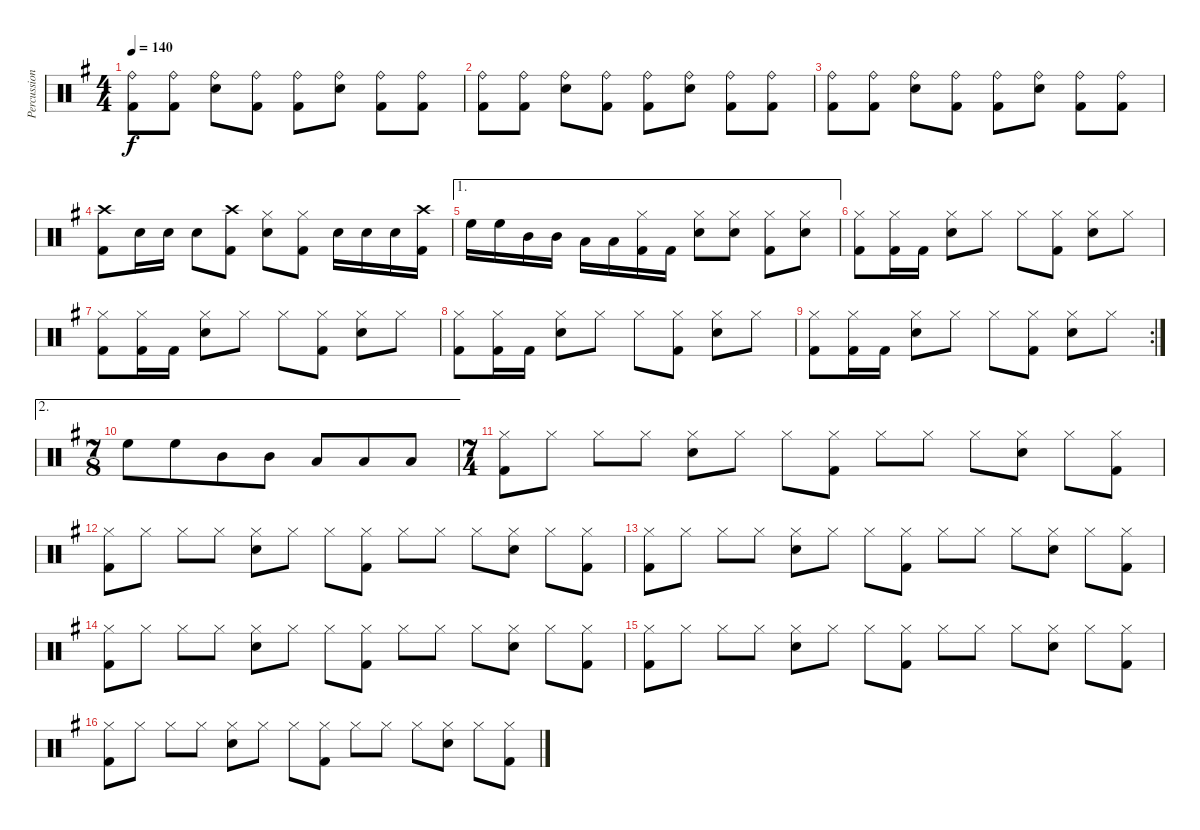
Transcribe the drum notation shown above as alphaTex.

\track ("Percussions" "Percussion") {instrument percussion}
\staff {score}
\articulation defaults
\ts (4 4)
\tempo 140
\clef neutral
\ks g
("Ride (bell)" "Kick (hit) 2").8{dy f} ("Ride (bell)" "Kick (hit) 2").8 ("Ride (bell)" "Snare (hit) 2").8 ("Ride (bell)" "Kick (hit) 2").8 ("Ride (bell)" "Kick (hit) 2").8 ("Ride (bell)" "Snare (hit) 2").8 ("Ride (bell)" "Kick (hit) 2").8 ("Ride (bell)" "Kick (hit) 2").8 |
("Ride (bell)" "Kick (hit) 2").8 ("Ride (bell)" "Kick (hit) 2").8 ("Ride (bell)" "Snare (hit) 2").8 ("Ride (bell)" "Kick (hit) 2").8 ("Ride (bell)" "Kick (hit) 2").8 ("Ride (bell)" "Snare (hit) 2").8 ("Ride (bell)" "Kick (hit) 2").8 ("Ride (bell)" "Kick (hit) 2").8 |
("Ride (bell)" "Kick (hit) 2").8 ("Ride (bell)" "Kick (hit) 2").8 ("Ride (bell)" "Snare (hit) 2").8 ("Ride (bell)" "Kick (hit) 2").8 ("Ride (bell)" "Kick (hit) 2").8 ("Ride (bell)" "Snare (hit) 2").8 ("Ride (bell)" "Kick (hit) 2").8 ("Ride (bell)" "Kick (hit) 2").8 |
("Crash high (hit)" "Kick (hit) 2").8 "Snare (hit) 2".16 "Snare (hit) 2".16 "Snare (hit) 2".8 ("Crash high (hit)" "Kick (hit) 2").8 ("Hi-Hat (closed)" "Snare (hit) 2").8 ("Hi-Hat (closed)" "Kick (hit) 2").8 "Snare (hit) 2".16 "Snare (hit) 2".16 "Snare (hit) 2".16 ("Crash high (hit)" "Kick (hit) 2").16 |
\ae 1 "High Floor Tom (hit)".16 "High Floor Tom (hit)".16 "Mid Tom (hit)".16 "Mid Tom (hit)".16 "Low Tom (hit)".16 "Low Floor Tom (hit)".16
("Hi-Hat (closed)" "Kick (hit) 2").16 "Kick (hit) 2".16 ("Hi-Hat (closed)" "Snare (hit) 2").8 ("Hi-Hat (closed)" "Snare (hit) 2").8 ("Hi-Hat (closed)" "Kick (hit) 2").8 ("Hi-Hat (closed)" "Snare (hit) 2").8 |
("Hi-Hat (closed)" "Kick (hit) 2").8 ("Hi-Hat (closed)" "Kick (hit) 2").16 "Kick (hit) 2".16 ("Hi-Hat (closed)" "Snare (hit) 2").8 "Hi-Hat (closed)".8 "Hi-Hat (closed)".8 ("Hi-Hat (closed)" "Kick (hit) 2").8 ("Hi-Hat (closed)" "Snare (hit) 2").8 "Hi-Hat (closed)".8 |
("Hi-Hat (closed)" "Kick (hit) 2").8 ("Hi-Hat (closed)" "Kick (hit) 2").16 "Kick (hit) 2".16 ("Hi-Hat (closed)" "Snare (hit) 2").8 "Hi-Hat (closed)".8 "Hi-Hat (closed)".8 ("Hi-Hat (closed)" "Kick (hit) 2").8 ("Hi-Hat (closed)" "Snare (hit) 2").8 "Hi-Hat (closed)".8 |
("Hi-Hat (closed)" "Kick (hit) 2").8 ("Hi-Hat (closed)" "Kick (hit) 2").16 "Kick (hit) 2".16 ("Hi-Hat (closed)" "Snare (hit) 2").8 "Hi-Hat (closed)".8 "Hi-Hat (closed)".8 ("Hi-Hat (closed)" "Kick (hit) 2").8 ("Hi-Hat (closed)" "Snare (hit) 2").8 "Hi-Hat (closed)".8 |
\rc 2
("Hi-Hat (closed)" "Kick (hit) 2").8 ("Hi-Hat (closed)" "Kick (hit) 2").16 "Kick (hit) 2".16 ("Hi-Hat (closed)" "Snare (hit) 2").8 "Hi-Hat (closed)".8 "Hi-Hat (closed)".8 ("Hi-Hat (closed)" "Kick (hit) 2").8 ("Hi-Hat (closed)" "Snare (hit) 2").8 "Hi-Hat (closed)".8 |
\ae 2
\ts (7 8)
"High Floor Tom (hit)".8 "High Floor Tom (hit)".8 "Mid Tom (hit)".8 "Mid Tom (hit)".8 "Low Tom (hit)".8 "Low Tom (hit)".8 "Low Floor Tom (hit)".8 |
\ts (7 4)
("Hi-Hat (closed)" "Kick (hit) 2").8 "Hi-Hat (closed)".8 "Hi-Hat (closed)".8 "Hi-Hat (closed)".8 ("Hi-Hat (closed)" "Snare (hit) 2").8 "Hi-Hat (closed)".8 "Hi-Hat (closed)".8 ("Hi-Hat (closed)" "Kick (hit) 2").8 "Hi-Hat (closed)".8 "Hi-Hat (closed)".8 "Hi-Hat (closed)".8 ("Hi-Hat (closed)" "Snare (hit) 2").8 "Hi-Hat (closed)".8 ("Hi-Hat (closed)" "Kick (hit) 2").8 |
("Hi-Hat (closed)" "Kick (hit) 2").8 "Hi-Hat (closed)".8 "Hi-Hat (closed)".8 "Hi-Hat (closed)".8 ("Hi-Hat (closed)" "Snare (hit) 2").8 "Hi-Hat (closed)".8 "Hi-Hat (closed)".8 ("Hi-Hat (closed)" "Kick (hit) 2").8 "Hi-Hat (closed)".8 "Hi-Hat (closed)".8 "Hi-Hat (closed)".8 ("Hi-Hat (closed)" "Snare (hit) 2").8 "Hi-Hat (closed)".8 ("Hi-Hat (closed)" "Kick (hit) 2").8 |
("Hi-Hat (closed)" "Kick (hit) 2").8 "Hi-Hat (closed)".8 "Hi-Hat (closed)".8 "Hi-Hat (closed)".8 ("Hi-Hat (closed)" "Snare (hit) 2").8 "Hi-Hat (closed)".8 "Hi-Hat (closed)".8 ("Hi-Hat (closed)" "Kick (hit) 2").8 "Hi-Hat (closed)".8 "Hi-Hat (closed)".8 "Hi-Hat (closed)".8 ("Hi-Hat (closed)" "Snare (hit) 2").8 "Hi-Hat (closed)".8 ("Hi-Hat (closed)" "Kick (hit) 2").8 |
("Hi-Hat (closed)" "Kick (hit) 2").8 "Hi-Hat (closed)".8 "Hi-Hat (closed)".8 "Hi-Hat (closed)".8 ("Hi-Hat (closed)" "Snare (hit) 2").8 "Hi-Hat (closed)".8 "Hi-Hat (closed)".8 ("Hi-Hat (closed)" "Kick (hit) 2").8 "Hi-Hat (closed)".8 "Hi-Hat (closed)".8 "Hi-Hat (closed)".8 ("Hi-Hat (closed)" "Snare (hit) 2").8 "Hi-Hat (closed)".8 ("Hi-Hat (closed)" "Kick (hit) 2").8 |
("Hi-Hat (closed)" "Kick (hit) 2").8 "Hi-Hat (closed)".8 "Hi-Hat (closed)".8 "Hi-Hat (closed)".8 ("Hi-Hat (closed)" "Snare (hit) 2").8 "Hi-Hat (closed)".8 "Hi-Hat (closed)".8 ("Hi-Hat (closed)" "Kick (hit) 2").8 "Hi-Hat (closed)".8 "Hi-Hat (closed)".8 "Hi-Hat (closed)".8 ("Hi-Hat (closed)" "Snare (hit) 2").8 "Hi-Hat (closed)".8 ("Hi-Hat (closed)" "Kick (hit) 2").8 |
("Hi-Hat (closed)" "Kick (hit) 2").8 "Hi-Hat (closed)".8 "Hi-Hat (closed)".8 "Hi-Hat (closed)".8 ("Hi-Hat (closed)" "Snare (hit) 2").8 "Hi-Hat (closed)".8 "Hi-Hat (closed)".8 ("Hi-Hat (closed)" "Kick (hit) 2").8 "Hi-Hat (closed)".8 "Hi-Hat (closed)".8 "Hi-Hat (closed)".8 ("Hi-Hat (closed)" "Snare (hit) 2").8 "Hi-Hat (closed)".8 ("Hi-Hat (closed)" "Kick (hit) 2").8
